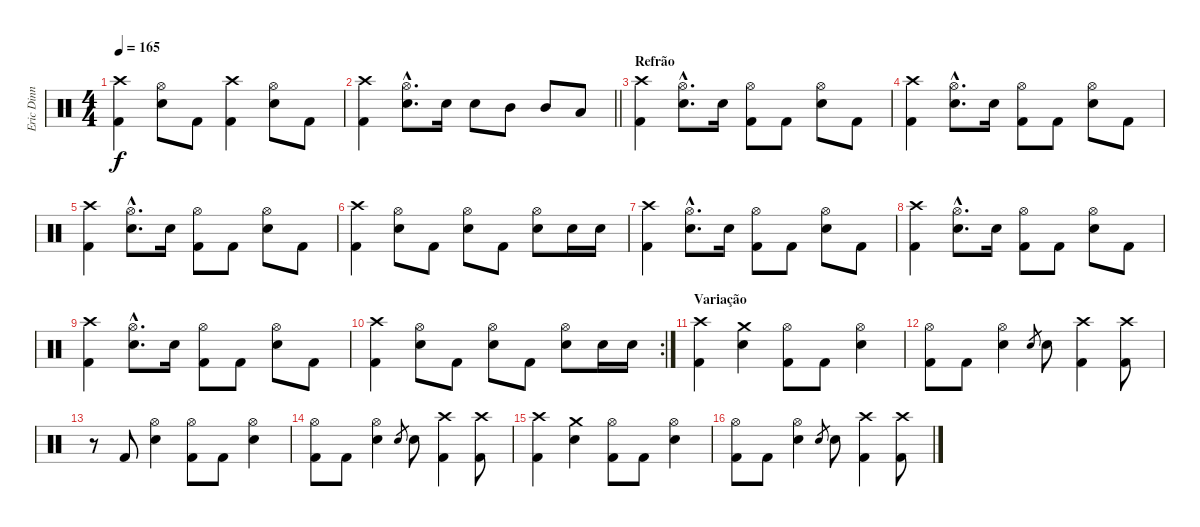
\track ("Eric Dinn" "Eric Dinn") {instrument percussion}
\staff {score}
\articulation defaults
\ts (4 4)
\tempo 165
\clef neutral
\ks c
("Crash high (hit)" "Kick (hit) 2").4{dy f} ("Hi-Hat (open)" "Snare (hit) 2").8 "Kick (hit) 2".8 ("Crash high (hit)" "Kick (hit) 2").4 ("Hi-Hat (open)" "Snare (hit) 2").8 "Kick (hit) 2".8 |
\barLineRight lightlight
("Crash high (hit)" "Kick (hit) 2").4 ("Hi-Hat (open)"{hac} "Snare (hit) 2"{hac}).8{d} "Snare (hit) 2".16 "Snare (hit) 2".8 "Mid Tom (hit)".8 "Mid Tom (hit)".8 "Low Tom (hit)".8 |
\section ("" "Refrão")
("Crash high (hit)" "Kick (hit) 2").4 ("Hi-Hat (open)"{hac} "Snare (hit) 2"{hac}).8{d} "Snare (hit) 2".16 ("Hi-Hat (open)" "Kick (hit) 2").8 "Kick (hit) 2".8 ("Hi-Hat (open)" "Snare (hit) 2").8 "Kick (hit) 2".8 |
("Crash high (hit)" "Kick (hit) 2").4 ("Hi-Hat (open)"{hac} "Snare (hit) 2"{hac}).8{d} "Snare (hit) 2".16 ("Hi-Hat (open)" "Kick (hit) 2").8 "Kick (hit) 2".8 ("Hi-Hat (open)" "Snare (hit) 2").8 "Kick (hit) 2".8 |
("Crash high (hit)" "Kick (hit) 2").4 ("Hi-Hat (open)"{hac} "Snare (hit) 2"{hac}).8{d} "Snare (hit) 2".16 ("Hi-Hat (open)" "Kick (hit) 2").8 "Kick (hit) 2".8 ("Hi-Hat (open)" "Snare (hit) 2").8 "Kick (hit) 2".8 |
("Crash high (hit)" "Kick (hit) 2").4 ("Hi-Hat (open)" "Snare (hit) 2").8 "Kick (hit) 2".8 ("Hi-Hat (open)" "Snare (hit) 2").8 "Kick (hit) 2".8 ("Hi-Hat (open)" "Snare (hit) 2").8 "Snare (hit) 2".16 "Snare (hit) 2".16 |
("Crash high (hit)" "Kick (hit) 2").4 ("Hi-Hat (open)"{hac} "Snare (hit) 2"{hac}).8{d} "Snare (hit) 2".16 ("Hi-Hat (open)" "Kick (hit) 2").8 "Kick (hit) 2".8 ("Hi-Hat (open)" "Snare (hit) 2").8 "Kick (hit) 2".8 |
("Crash high (hit)" "Kick (hit) 2").4 ("Hi-Hat (open)"{hac} "Snare (hit) 2"{hac}).8{d} "Snare (hit) 2".16 ("Hi-Hat (open)" "Kick (hit) 2").8 "Kick (hit) 2".8 ("Hi-Hat (open)" "Snare (hit) 2").8 "Kick (hit) 2".8 |
("Crash high (hit)" "Kick (hit) 2").4 ("Hi-Hat (open)"{hac} "Snare (hit) 2"{hac}).8{d} "Snare (hit) 2".16 ("Hi-Hat (open)" "Kick (hit) 2").8 "Kick (hit) 2".8 ("Hi-Hat (open)" "Snare (hit) 2").8 "Kick (hit) 2".8 |
\rc 2
("Crash high (hit)" "Kick (hit) 2").4 ("Hi-Hat (open)" "Snare (hit) 2").8 "Kick (hit) 2".8 ("Hi-Hat (open)" "Snare (hit) 2").8 "Kick (hit) 2".8 ("Hi-Hat (open)" "Snare (hit) 2").8 "Snare (hit) 2".16 "Snare (hit) 2".16 |
\section ("" "Variação")
("Crash high (hit)" "Kick (hit) 2").4 ("Crash medium (hit)" "Snare (hit) 2").4 ("Hi-Hat (open)" "Kick (hit) 2").8 "Kick (hit) 2".8 ("Hi-Hat (open)" "Snare (hit) 2").4 |
("Hi-Hat (open)" "Kick (hit) 2").8 "Kick (hit) 2".8 ("Hi-Hat (open)" "Snare (hit) 2").4 "Snare (hit) 2".8{gr} "Snare (hit) 2".8 ("Crash high (hit)" "Kick (hit) 2").4 ("Crash high (hit)" "Kick (hit) 2").8 |
r.8 "Kick (hit) 2".8 ("Hi-Hat (open)" "Snare (hit) 2").4 ("Hi-Hat (open)" "Kick (hit) 2").8 "Kick (hit) 2".8 ("Hi-Hat (open)" "Snare (hit) 2").4 |
("Hi-Hat (open)" "Kick (hit) 2").8 "Kick (hit) 2".8 ("Hi-Hat (open)" "Snare (hit) 2").4 "Snare (hit) 2".8{gr} "Snare (hit) 2".8 ("Crash high (hit)" "Kick (hit) 2").4 ("Crash high (hit)" "Kick (hit) 2").8 |
("Crash high (hit)" "Kick (hit) 2").4 ("Crash medium (hit)" "Snare (hit) 2").4 ("Hi-Hat (open)" "Kick (hit) 2").8 "Kick (hit) 2".8 ("Hi-Hat (open)" "Snare (hit) 2").4 |
("Hi-Hat (open)" "Kick (hit) 2").8 "Kick (hit) 2".8 ("Hi-Hat (open)" "Snare (hit) 2").4 "Snare (hit) 2".8{gr} "Snare (hit) 2".8 ("Crash high (hit)" "Kick (hit) 2").4 ("Crash high (hit)" "Kick (hit) 2").8
